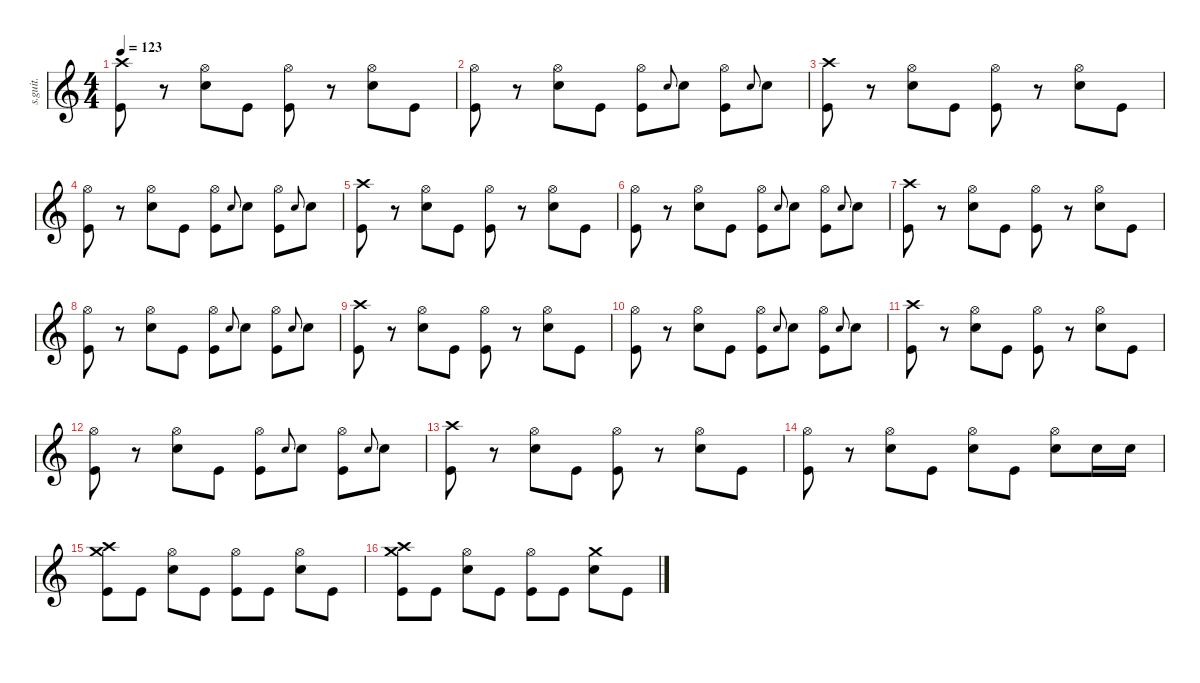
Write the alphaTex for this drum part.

\defaultSystemsLayout 4
\hideDynamics
\bracketExtendMode nobrackets
\track ("Dave Grohl" "s.guit.") {instrument percussion}
\staff {score}
\articulation defaults
\ts (4 4)
\tempo 123
\clef g2
\ks c
("Crash high (hit)" "Kick (hit)").8{lyrics (0 "") lyrics (1 "") lyrics (2 "") lyrics (3 "") lyrics (4 "") dy fff} r.8 ("Hi-Hat (open)" "Snare (hit) 2").8{lyrics (0 "") lyrics (1 "") lyrics (2 "") lyrics (3 "") lyrics (4 "")} "Kick (hit)".8{lyrics (0 "") lyrics (1 "") lyrics (2 "") lyrics (3 "") lyrics (4 "")} ("Hi-Hat (open)" "Kick (hit)").8{lyrics (0 "") lyrics (1 "") lyrics (2 "") lyrics (3 "") lyrics (4 "")} r.8 ("Hi-Hat (open)" "Snare (hit) 2").8{lyrics (0 "") lyrics (1 "") lyrics (2 "") lyrics (3 "") lyrics (4 "")} "Kick (hit)".8{lyrics (0 "") lyrics (1 "") lyrics (2 "") lyrics (3 "") lyrics (4 "")} |
("Hi-Hat (open)" "Kick (hit)").8{lyrics (0 "") lyrics (1 "") lyrics (2 "") lyrics (3 "") lyrics (4 "")} r.8 ("Hi-Hat (open)" "Snare (hit) 2").8{lyrics (0 "") lyrics (1 "") lyrics (2 "") lyrics (3 "") lyrics (4 "")} "Kick (hit)".8{lyrics (0 "") lyrics (1 "") lyrics (2 "") lyrics (3 "") lyrics (4 "")} ("Hi-Hat (open)" "Kick (hit)").8{lyrics (0 "") lyrics (1 "") lyrics (2 "") lyrics (3 "") lyrics (4 "")} "Snare (hit) 2".8{lyrics (0 "") lyrics (1 "") lyrics (2 "") lyrics (3 "") lyrics (4 "") gr onbeat} "Snare (hit) 2".8{lyrics (0 "") lyrics (1 "") lyrics (2 "") lyrics (3 "") lyrics (4 "")} ("Hi-Hat (open)" "Kick (hit)").8{lyrics (0 "") lyrics (1 "") lyrics (2 "") lyrics (3 "") lyrics (4 "")} "Snare (hit) 2".8{lyrics (0 "") lyrics (1 "") lyrics (2 "") lyrics (3 "") lyrics (4 "") gr onbeat} "Snare (hit) 2".8{lyrics (0 "") lyrics (1 "") lyrics (2 "") lyrics (3 "") lyrics (4 "")} |
("Crash high (hit)" "Kick (hit)").8{lyrics (0 "") lyrics (1 "") lyrics (2 "") lyrics (3 "") lyrics (4 "")} r.8 ("Hi-Hat (open)" "Snare (hit) 2").8{lyrics (0 "") lyrics (1 "") lyrics (2 "") lyrics (3 "") lyrics (4 "")} "Kick (hit)".8{lyrics (0 "") lyrics (1 "") lyrics (2 "") lyrics (3 "") lyrics (4 "")} ("Hi-Hat (open)" "Kick (hit)").8{lyrics (0 "") lyrics (1 "") lyrics (2 "") lyrics (3 "") lyrics (4 "")} r.8 ("Hi-Hat (open)" "Snare (hit) 2").8{lyrics (0 "") lyrics (1 "") lyrics (2 "") lyrics (3 "") lyrics (4 "")} "Kick (hit)".8{lyrics (0 "") lyrics (1 "") lyrics (2 "") lyrics (3 "") lyrics (4 "")} |
("Hi-Hat (open)" "Kick (hit)").8{lyrics (0 "") lyrics (1 "") lyrics (2 "") lyrics (3 "") lyrics (4 "")} r.8 ("Hi-Hat (open)" "Snare (hit) 2").8{lyrics (0 "") lyrics (1 "") lyrics (2 "") lyrics (3 "") lyrics (4 "")} "Kick (hit)".8{lyrics (0 "") lyrics (1 "") lyrics (2 "") lyrics (3 "") lyrics (4 "")} ("Hi-Hat (open)" "Kick (hit)").8{lyrics (0 "") lyrics (1 "") lyrics (2 "") lyrics (3 "") lyrics (4 "")} "Snare (hit) 2".8{lyrics (0 "") lyrics (1 "") lyrics (2 "") lyrics (3 "") lyrics (4 "") gr onbeat} "Snare (hit) 2".8{lyrics (0 "") lyrics (1 "") lyrics (2 "") lyrics (3 "") lyrics (4 "")} ("Hi-Hat (open)" "Kick (hit)").8{lyrics (0 "") lyrics (1 "") lyrics (2 "") lyrics (3 "") lyrics (4 "")} "Snare (hit) 2".8{lyrics (0 "") lyrics (1 "") lyrics (2 "") lyrics (3 "") lyrics (4 "") gr onbeat} "Snare (hit) 2".8{lyrics (0 "") lyrics (1 "") lyrics (2 "") lyrics (3 "") lyrics (4 "")} |
("Crash high (hit)" "Kick (hit)").8{lyrics (0 "") lyrics (1 "") lyrics (2 "") lyrics (3 "") lyrics (4 "")} r.8 ("Hi-Hat (open)" "Snare (hit) 2").8{lyrics (0 "") lyrics (1 "") lyrics (2 "") lyrics (3 "") lyrics (4 "")} "Kick (hit)".8{lyrics (0 "") lyrics (1 "") lyrics (2 "") lyrics (3 "") lyrics (4 "")} ("Hi-Hat (open)" "Kick (hit)").8{lyrics (0 "") lyrics (1 "") lyrics (2 "") lyrics (3 "") lyrics (4 "")} r.8 ("Hi-Hat (open)" "Snare (hit) 2").8{lyrics (0 "") lyrics (1 "") lyrics (2 "") lyrics (3 "") lyrics (4 "")} "Kick (hit)".8{lyrics (0 "") lyrics (1 "") lyrics (2 "") lyrics (3 "") lyrics (4 "")} |
("Hi-Hat (open)" "Kick (hit)").8{lyrics (0 "") lyrics (1 "") lyrics (2 "") lyrics (3 "") lyrics (4 "")} r.8 ("Hi-Hat (open)" "Snare (hit) 2").8{lyrics (0 "") lyrics (1 "") lyrics (2 "") lyrics (3 "") lyrics (4 "")} "Kick (hit)".8{lyrics (0 "") lyrics (1 "") lyrics (2 "") lyrics (3 "") lyrics (4 "")} ("Hi-Hat (open)" "Kick (hit)").8{lyrics (0 "") lyrics (1 "") lyrics (2 "") lyrics (3 "") lyrics (4 "")} "Snare (hit) 2".8{lyrics (0 "") lyrics (1 "") lyrics (2 "") lyrics (3 "") lyrics (4 "") gr onbeat} "Snare (hit) 2".8{lyrics (0 "") lyrics (1 "") lyrics (2 "") lyrics (3 "") lyrics (4 "")} ("Hi-Hat (open)" "Kick (hit)").8{lyrics (0 "") lyrics (1 "") lyrics (2 "") lyrics (3 "") lyrics (4 "")} "Snare (hit) 2".8{lyrics (0 "") lyrics (1 "") lyrics (2 "") lyrics (3 "") lyrics (4 "") gr onbeat} "Snare (hit) 2".8{lyrics (0 "") lyrics (1 "") lyrics (2 "") lyrics (3 "") lyrics (4 "")} |
("Crash high (hit)" "Kick (hit)").8{lyrics (0 "") lyrics (1 "") lyrics (2 "") lyrics (3 "") lyrics (4 "")} r.8 ("Hi-Hat (open)" "Snare (hit) 2").8{lyrics (0 "") lyrics (1 "") lyrics (2 "") lyrics (3 "") lyrics (4 "")} "Kick (hit)".8{lyrics (0 "") lyrics (1 "") lyrics (2 "") lyrics (3 "") lyrics (4 "")} ("Hi-Hat (open)" "Kick (hit)").8{lyrics (0 "") lyrics (1 "") lyrics (2 "") lyrics (3 "") lyrics (4 "")} r.8 ("Hi-Hat (open)" "Snare (hit) 2").8{lyrics (0 "") lyrics (1 "") lyrics (2 "") lyrics (3 "") lyrics (4 "")} "Kick (hit)".8{lyrics (0 "") lyrics (1 "") lyrics (2 "") lyrics (3 "") lyrics (4 "")} |
("Hi-Hat (open)" "Kick (hit)").8{lyrics (0 "") lyrics (1 "") lyrics (2 "") lyrics (3 "") lyrics (4 "")} r.8 ("Hi-Hat (open)" "Snare (hit) 2").8{lyrics (0 "") lyrics (1 "") lyrics (2 "") lyrics (3 "") lyrics (4 "")} "Kick (hit)".8{lyrics (0 "") lyrics (1 "") lyrics (2 "") lyrics (3 "") lyrics (4 "")} ("Hi-Hat (open)" "Kick (hit)").8{lyrics (0 "") lyrics (1 "") lyrics (2 "") lyrics (3 "") lyrics (4 "")} "Snare (hit) 2".8{lyrics (0 "") lyrics (1 "") lyrics (2 "") lyrics (3 "") lyrics (4 "") gr onbeat} "Snare (hit) 2".8{lyrics (0 "") lyrics (1 "") lyrics (2 "") lyrics (3 "") lyrics (4 "")} ("Hi-Hat (open)" "Kick (hit)").8{lyrics (0 "") lyrics (1 "") lyrics (2 "") lyrics (3 "") lyrics (4 "")} "Snare (hit) 2".8{lyrics (0 "") lyrics (1 "") lyrics (2 "") lyrics (3 "") lyrics (4 "") gr onbeat} "Snare (hit) 2".8{lyrics (0 "") lyrics (1 "") lyrics (2 "") lyrics (3 "") lyrics (4 "")} |
("Crash high (hit)" "Kick (hit)").8{lyrics (0 "") lyrics (1 "") lyrics (2 "") lyrics (3 "") lyrics (4 "")} r.8 ("Hi-Hat (open)" "Snare (hit) 2").8{lyrics (0 "") lyrics (1 "") lyrics (2 "") lyrics (3 "") lyrics (4 "")} "Kick (hit)".8{lyrics (0 "") lyrics (1 "") lyrics (2 "") lyrics (3 "") lyrics (4 "")} ("Hi-Hat (open)" "Kick (hit)").8{lyrics (0 "") lyrics (1 "") lyrics (2 "") lyrics (3 "") lyrics (4 "")} r.8 ("Hi-Hat (open)" "Snare (hit) 2").8{lyrics (0 "") lyrics (1 "") lyrics (2 "") lyrics (3 "") lyrics (4 "")} "Kick (hit)".8{lyrics (0 "") lyrics (1 "") lyrics (2 "") lyrics (3 "") lyrics (4 "")} |
("Hi-Hat (open)" "Kick (hit)").8{lyrics (0 "") lyrics (1 "") lyrics (2 "") lyrics (3 "") lyrics (4 "")} r.8 ("Hi-Hat (open)" "Snare (hit) 2").8{lyrics (0 "") lyrics (1 "") lyrics (2 "") lyrics (3 "") lyrics (4 "")} "Kick (hit)".8{lyrics (0 "") lyrics (1 "") lyrics (2 "") lyrics (3 "") lyrics (4 "")} ("Hi-Hat (open)" "Kick (hit)").8{lyrics (0 "") lyrics (1 "") lyrics (2 "") lyrics (3 "") lyrics (4 "")} "Snare (hit) 2".8{lyrics (0 "") lyrics (1 "") lyrics (2 "") lyrics (3 "") lyrics (4 "") gr onbeat} "Snare (hit) 2".8{lyrics (0 "") lyrics (1 "") lyrics (2 "") lyrics (3 "") lyrics (4 "")} ("Hi-Hat (open)" "Kick (hit)").8{lyrics (0 "") lyrics (1 "") lyrics (2 "") lyrics (3 "") lyrics (4 "")} "Snare (hit) 2".8{lyrics (0 "") lyrics (1 "") lyrics (2 "") lyrics (3 "") lyrics (4 "") gr onbeat} "Snare (hit) 2".8{lyrics (0 "") lyrics (1 "") lyrics (2 "") lyrics (3 "") lyrics (4 "")} |
("Crash high (hit)" "Kick (hit)").8{lyrics (0 "") lyrics (1 "") lyrics (2 "") lyrics (3 "") lyrics (4 "")} r.8 ("Hi-Hat (open)" "Snare (hit) 2").8{lyrics (0 "") lyrics (1 "") lyrics (2 "") lyrics (3 "") lyrics (4 "")} "Kick (hit)".8{lyrics (0 "") lyrics (1 "") lyrics (2 "") lyrics (3 "") lyrics (4 "")} ("Hi-Hat (open)" "Kick (hit)").8{lyrics (0 "") lyrics (1 "") lyrics (2 "") lyrics (3 "") lyrics (4 "")} r.8 ("Hi-Hat (open)" "Snare (hit) 2").8{lyrics (0 "") lyrics (1 "") lyrics (2 "") lyrics (3 "") lyrics (4 "")} "Kick (hit)".8{lyrics (0 "") lyrics (1 "") lyrics (2 "") lyrics (3 "") lyrics (4 "")} |
("Hi-Hat (open)" "Kick (hit)").8{lyrics (0 "") lyrics (1 "") lyrics (2 "") lyrics (3 "") lyrics (4 "")} r.8 ("Hi-Hat (open)" "Snare (hit) 2").8{lyrics (0 "") lyrics (1 "") lyrics (2 "") lyrics (3 "") lyrics (4 "")} "Kick (hit)".8{lyrics (0 "") lyrics (1 "") lyrics (2 "") lyrics (3 "") lyrics (4 "")} ("Hi-Hat (open)" "Kick (hit)").8{lyrics (0 "") lyrics (1 "") lyrics (2 "") lyrics (3 "") lyrics (4 "")} "Snare (hit) 2".8{lyrics (0 "") lyrics (1 "") lyrics (2 "") lyrics (3 "") lyrics (4 "") gr onbeat} "Snare (hit) 2".8{lyrics (0 "") lyrics (1 "") lyrics (2 "") lyrics (3 "") lyrics (4 "")} ("Hi-Hat (open)" "Kick (hit)").8{lyrics (0 "") lyrics (1 "") lyrics (2 "") lyrics (3 "") lyrics (4 "")} "Snare (hit) 2".8{lyrics (0 "") lyrics (1 "") lyrics (2 "") lyrics (3 "") lyrics (4 "") gr onbeat} "Snare (hit) 2".8{lyrics (0 "") lyrics (1 "") lyrics (2 "") lyrics (3 "") lyrics (4 "")} |
("Crash high (hit)" "Kick (hit)").8{lyrics (0 "") lyrics (1 "") lyrics (2 "") lyrics (3 "") lyrics (4 "")} r.8 ("Hi-Hat (open)" "Snare (hit) 2").8{lyrics (0 "") lyrics (1 "") lyrics (2 "") lyrics (3 "") lyrics (4 "")} "Kick (hit)".8{lyrics (0 "") lyrics (1 "") lyrics (2 "") lyrics (3 "") lyrics (4 "")} ("Hi-Hat (open)" "Kick (hit)").8{lyrics (0 "") lyrics (1 "") lyrics (2 "") lyrics (3 "") lyrics (4 "")} r.8 ("Hi-Hat (open)" "Snare (hit) 2").8{lyrics (0 "") lyrics (1 "") lyrics (2 "") lyrics (3 "") lyrics (4 "")} "Kick (hit)".8{lyrics (0 "") lyrics (1 "") lyrics (2 "") lyrics (3 "") lyrics (4 "")} |
("Hi-Hat (open)" "Kick (hit)").8{lyrics (0 "") lyrics (1 "") lyrics (2 "") lyrics (3 "") lyrics (4 "")} r.8 ("Hi-Hat (open)" "Snare (hit) 2").8{lyrics (0 "") lyrics (1 "") lyrics (2 "") lyrics (3 "") lyrics (4 "")} "Kick (hit)".8{lyrics (0 "") lyrics (1 "") lyrics (2 "") lyrics (3 "") lyrics (4 "")} ("Snare (hit) 2" "Hi-Hat (open)").8{lyrics (0 "") lyrics (1 "") lyrics (2 "") lyrics (3 "") lyrics (4 "")} "Kick (hit)".8{lyrics (0 "") lyrics (1 "") lyrics (2 "") lyrics (3 "") lyrics (4 "")} ("Snare (hit) 2" "Hi-Hat (open)").8{lyrics (0 "") lyrics (1 "") lyrics (2 "") lyrics (3 "") lyrics (4 "")} "Snare (hit) 2".16{lyrics (0 "") lyrics (1 "") lyrics (2 "") lyrics (3 "") lyrics (4 "")} "Snare (hit) 2".16{lyrics (0 "") lyrics (1 "") lyrics (2 "") lyrics (3 "") lyrics (4 "")} |
("Crash high (hit)" "Kick (hit)" "Crash medium (hit)").8{lyrics (0 "") lyrics (1 "") lyrics (2 "") lyrics (3 "") lyrics (4 "")} "Kick (hit)".8{lyrics (0 "") lyrics (1 "") lyrics (2 "") lyrics (3 "") lyrics (4 "")} ("Snare (hit) 2" "Hi-Hat (open)").8{lyrics (0 "") lyrics (1 "") lyrics (2 "") lyrics (3 "") lyrics (4 "")} "Kick (hit)".8{lyrics (0 "") lyrics (1 "") lyrics (2 "") lyrics (3 "") lyrics (4 "")} ("Kick (hit)" "Hi-Hat (open)").8{lyrics (0 "") lyrics (1 "") lyrics (2 "") lyrics (3 "") lyrics (4 "")} "Kick (hit)".8{lyrics (0 "") lyrics (1 "") lyrics (2 "") lyrics (3 "") lyrics (4 "")} ("Snare (hit) 2" "Hi-Hat (open)").8{lyrics (0 "") lyrics (1 "") lyrics (2 "") lyrics (3 "") lyrics (4 "")} "Kick (hit)".8{lyrics (0 "") lyrics (1 "") lyrics (2 "") lyrics (3 "") lyrics (4 "")} |
("Crash high (hit)" "Kick (hit)" "Crash medium (hit)").8{lyrics (0 "") lyrics (1 "") lyrics (2 "") lyrics (3 "") lyrics (4 "")} "Kick (hit)".8{lyrics (0 "") lyrics (1 "") lyrics (2 "") lyrics (3 "") lyrics (4 "")} ("Snare (hit) 2" "Hi-Hat (open)").8{lyrics (0 "") lyrics (1 "") lyrics (2 "") lyrics (3 "") lyrics (4 "")} "Kick (hit)".8{lyrics (0 "") lyrics (1 "") lyrics (2 "") lyrics (3 "") lyrics (4 "")} ("Kick (hit)" "Hi-Hat (open)").8{lyrics (0 "") lyrics (1 "") lyrics (2 "") lyrics (3 "") lyrics (4 "")} "Kick (hit)".8{lyrics (0 "") lyrics (1 "") lyrics (2 "") lyrics (3 "") lyrics (4 "")} ("Snare (hit) 2" "Crash medium (hit)").8{lyrics (0 "") lyrics (1 "") lyrics (2 "") lyrics (3 "") lyrics (4 "")} "Kick (hit)".8{lyrics (0 "") lyrics (1 "") lyrics (2 "") lyrics (3 "") lyrics (4 "")}
